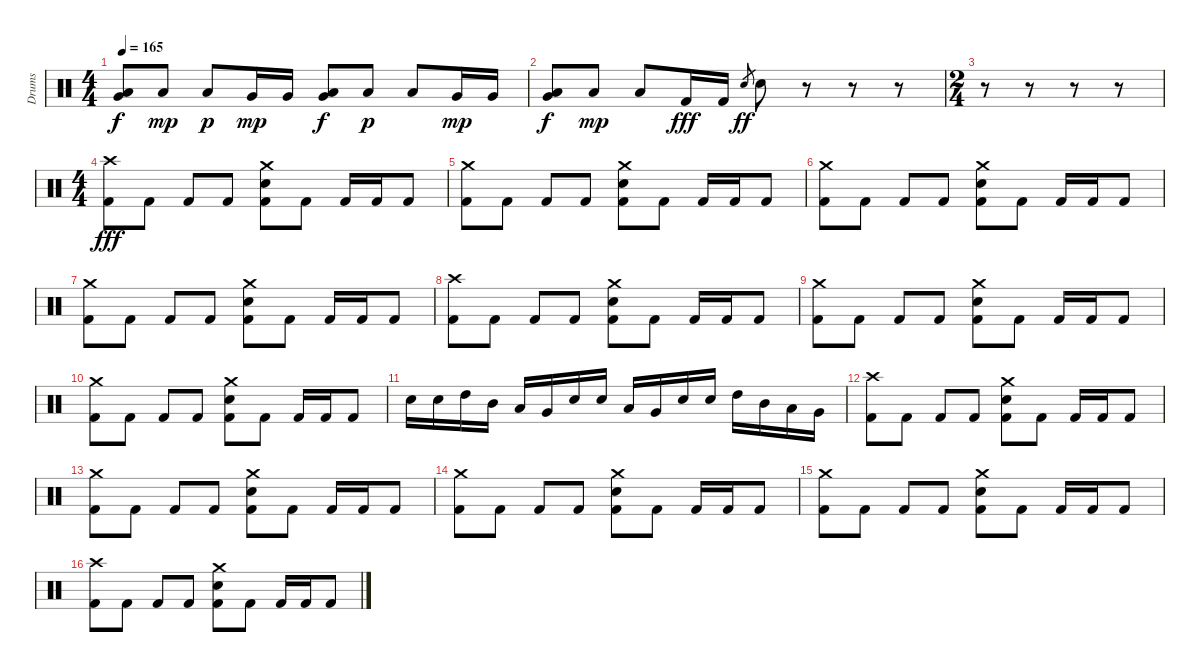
\track ("Drums" "Drums") {instrument percussion}
\staff {score}
\articulation defaults
\ts (4 4)
\tempo 165
\clef neutral
\ks c
("Very Low Tom (hit)" "Low Floor Tom (hit)").8{dy f} "Low Floor Tom (hit)".8{dy mp} "Low Floor Tom (hit)".8{dy p} "Very Low Tom (hit)".16{dy mp} "Very Low Tom (hit)".16 ("Very Low Tom (hit)" "Low Floor Tom (hit)").8{dy f} "Low Floor Tom (hit)".8{dy p} "Low Floor Tom (hit)".8 "Very Low Tom (hit)".16{dy mp} "Very Low Tom (hit)".16 |
("Very Low Tom (hit)" "Low Floor Tom (hit)").8{dy f} "Low Floor Tom (hit)".8{dy mp} "Low Floor Tom (hit)".8 "Kick (hit) 2".16{dy fff} "Kick (hit) 2".16 "Snare (hit) 2".8{gr dy ff} "Snare (hit) 2".8 r.8 r.8 r.8 |
\ts (2 4)
r.8 r.8 r.8 r.8 |
\ts (4 4)
("Crash high (hit)" "Kick (hit) 2").8{dy fff} "Kick (hit) 2".8 "Kick (hit) 2".8 "Kick (hit) 2".8 ("Crash medium (hit)" "Snare (hit) 2" "Kick (hit) 2").8 "Kick (hit) 2".8 "Kick (hit) 2".16 "Kick (hit) 2".16 "Kick (hit) 2".8 |
("Crash medium (hit)" "Kick (hit) 2").8 "Kick (hit) 2".8 "Kick (hit) 2".8 "Kick (hit) 2".8 ("Crash medium (hit)" "Snare (hit) 2" "Kick (hit) 2").8 "Kick (hit) 2".8 "Kick (hit) 2".16 "Kick (hit) 2".16 "Kick (hit) 2".8 |
("Crash medium (hit)" "Kick (hit) 2").8 "Kick (hit) 2".8 "Kick (hit) 2".8 "Kick (hit) 2".8 ("Crash medium (hit)" "Snare (hit) 2" "Kick (hit) 2").8 "Kick (hit) 2".8 "Kick (hit) 2".16 "Kick (hit) 2".16 "Kick (hit) 2".8 |
("Crash medium (hit)" "Kick (hit) 2").8 "Kick (hit) 2".8 "Kick (hit) 2".8 "Kick (hit) 2".8 ("Crash medium (hit)" "Snare (hit) 2" "Kick (hit) 2").8 "Kick (hit) 2".8 "Kick (hit) 2".16 "Kick (hit) 2".16 "Kick (hit) 2".8 |
("Crash high (hit)" "Kick (hit) 2").8 "Kick (hit) 2".8 "Kick (hit) 2".8 "Kick (hit) 2".8 ("Crash medium (hit)" "Snare (hit) 2" "Kick (hit) 2").8 "Kick (hit) 2".8 "Kick (hit) 2".16 "Kick (hit) 2".16 "Kick (hit) 2".8 |
("Crash medium (hit)" "Kick (hit) 2").8 "Kick (hit) 2".8 "Kick (hit) 2".8 "Kick (hit) 2".8 ("Crash medium (hit)" "Snare (hit) 2" "Kick (hit) 2").8 "Kick (hit) 2".8 "Kick (hit) 2".16 "Kick (hit) 2".16 "Kick (hit) 2".8 |
("Crash medium (hit)" "Kick (hit) 2").8 "Kick (hit) 2".8 "Kick (hit) 2".8 "Kick (hit) 2".8 ("Crash medium (hit)" "Snare (hit) 2" "Kick (hit) 2").8 "Kick (hit) 2".8 "Kick (hit) 2".16 "Kick (hit) 2".16 "Kick (hit) 2".8 |
"Snare (hit) 2".16 "Snare (hit) 2".16 "High Tom (hit)".16 "Mid Tom (hit)".16 "Low Tom (hit)".16 "Very Low Tom (hit)".16 "Snare (hit) 2".16 "Snare (hit) 2".16 "Low Tom (hit)".16 "Very Low Tom (hit)".16 "Snare (hit) 2".16 "Snare (hit) 2".16 "High Tom (hit)".16 "Mid Tom (hit)".16 "Low Tom (hit)".16 "Very Low Tom (hit)".16 |
("Crash high (hit)" "Kick (hit) 2").8 "Kick (hit) 2".8 "Kick (hit) 2".8 "Kick (hit) 2".8 ("Crash medium (hit)" "Snare (hit) 2" "Kick (hit) 2").8 "Kick (hit) 2".8 "Kick (hit) 2".16 "Kick (hit) 2".16 "Kick (hit) 2".8 |
("Crash medium (hit)" "Kick (hit) 2").8 "Kick (hit) 2".8 "Kick (hit) 2".8 "Kick (hit) 2".8 ("Crash medium (hit)" "Snare (hit) 2" "Kick (hit) 2").8 "Kick (hit) 2".8 "Kick (hit) 2".16 "Kick (hit) 2".16 "Kick (hit) 2".8 |
("Crash medium (hit)" "Kick (hit) 2").8 "Kick (hit) 2".8 "Kick (hit) 2".8 "Kick (hit) 2".8 ("Crash medium (hit)" "Snare (hit) 2" "Kick (hit) 2").8 "Kick (hit) 2".8 "Kick (hit) 2".16 "Kick (hit) 2".16 "Kick (hit) 2".8 |
("Crash medium (hit)" "Kick (hit) 2").8 "Kick (hit) 2".8 "Kick (hit) 2".8 "Kick (hit) 2".8 ("Crash medium (hit)" "Snare (hit) 2" "Kick (hit) 2").8 "Kick (hit) 2".8 "Kick (hit) 2".16 "Kick (hit) 2".16 "Kick (hit) 2".8 |
("Crash high (hit)" "Kick (hit) 2").8 "Kick (hit) 2".8 "Kick (hit) 2".8 "Kick (hit) 2".8 ("Crash medium (hit)" "Snare (hit) 2" "Kick (hit) 2").8 "Kick (hit) 2".8 "Kick (hit) 2".16 "Kick (hit) 2".16 "Kick (hit) 2".8
